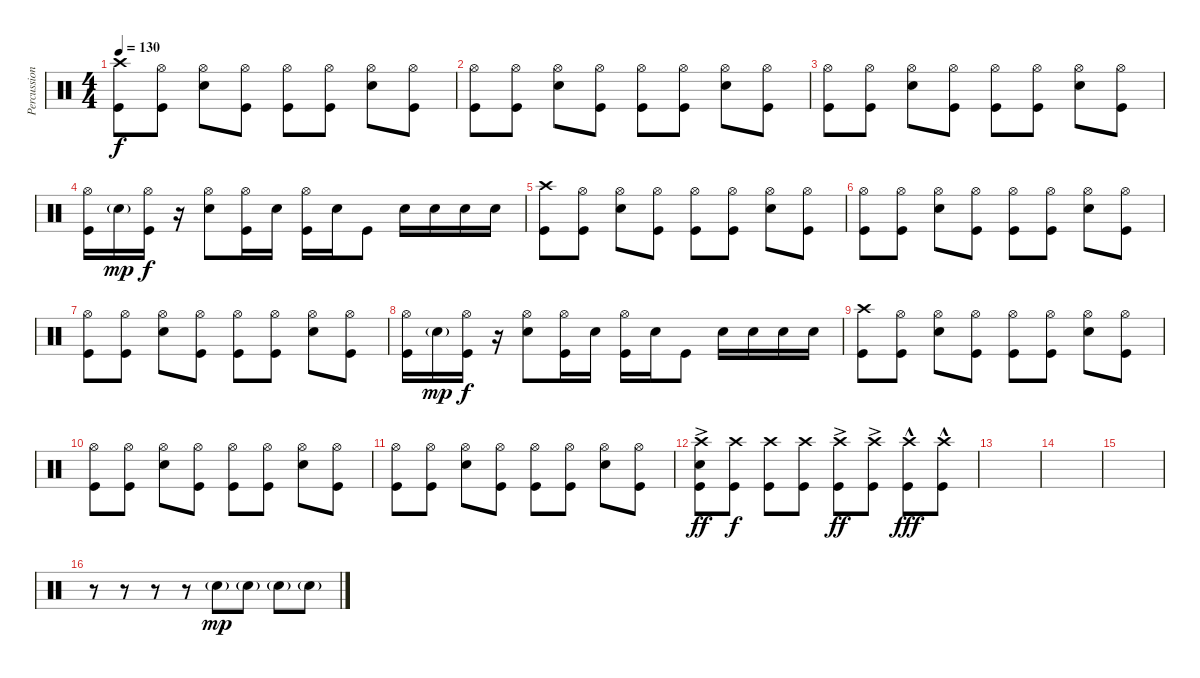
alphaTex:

\track ("Percussion" "Percussion") {instrument percussion}
\staff {score}
\articulation defaults
\ts (4 4)
\tempo 130
\clef neutral
\ks c
("Crash high (hit)" "Kick (hit)").8{dy f} ("Hi-Hat (open)" "Kick (hit)").8 ("Hi-Hat (open)" "Electric Snare (hit)").8 ("Hi-Hat (open)" "Kick (hit)").8 ("Hi-Hat (open)" "Kick (hit)").8 ("Hi-Hat (open)" "Kick (hit)").8 ("Hi-Hat (open)" "Electric Snare (hit)").8 ("Hi-Hat (open)" "Kick (hit)").8 |
("Hi-Hat (open)" "Kick (hit)").8 ("Hi-Hat (open)" "Kick (hit)").8 ("Hi-Hat (open)" "Electric Snare (hit)").8 ("Hi-Hat (open)" "Kick (hit)").8 ("Hi-Hat (open)" "Kick (hit)").8 ("Hi-Hat (open)" "Kick (hit)").8 ("Hi-Hat (open)" "Electric Snare (hit)").8 ("Hi-Hat (open)" "Kick (hit)").8 |
("Hi-Hat (open)" "Kick (hit)").8 ("Hi-Hat (open)" "Kick (hit)").8 ("Hi-Hat (open)" "Electric Snare (hit)").8 ("Hi-Hat (open)" "Kick (hit)").8 ("Hi-Hat (open)" "Kick (hit)").8 ("Hi-Hat (open)" "Kick (hit)").8 ("Hi-Hat (open)" "Electric Snare (hit)").8 ("Hi-Hat (open)" "Kick (hit)").8 |
("Hi-Hat (open)" "Kick (hit)").16 "Electric Snare (hit)"{g}.16{dy mp} ("Hi-Hat (open)" "Kick (hit)").16{dy f} r.16 ("Hi-Hat (open)" "Electric Snare (hit)").8 ("Hi-Hat (open)" "Kick (hit)").16 "Electric Snare (hit)".16 ("Hi-Hat (open)" "Kick (hit)").16 "Electric Snare (hit)".16 "Kick (hit)".8 "Electric Snare (hit)".16 "Electric Snare (hit)".16 "Electric Snare (hit)".16 "Electric Snare (hit)".16 |
("Crash high (hit)" "Kick (hit)").8 ("Hi-Hat (open)" "Kick (hit)").8 ("Hi-Hat (open)" "Electric Snare (hit)").8 ("Hi-Hat (open)" "Kick (hit)").8 ("Hi-Hat (open)" "Kick (hit)").8 ("Hi-Hat (open)" "Kick (hit)").8 ("Hi-Hat (open)" "Electric Snare (hit)").8 ("Hi-Hat (open)" "Kick (hit)").8 |
("Hi-Hat (open)" "Kick (hit)").8 ("Hi-Hat (open)" "Kick (hit)").8 ("Hi-Hat (open)" "Electric Snare (hit)").8 ("Hi-Hat (open)" "Kick (hit)").8 ("Hi-Hat (open)" "Kick (hit)").8 ("Hi-Hat (open)" "Kick (hit)").8 ("Hi-Hat (open)" "Electric Snare (hit)").8 ("Hi-Hat (open)" "Kick (hit)").8 |
("Hi-Hat (open)" "Kick (hit)").8 ("Hi-Hat (open)" "Kick (hit)").8 ("Hi-Hat (open)" "Electric Snare (hit)").8 ("Hi-Hat (open)" "Kick (hit)").8 ("Hi-Hat (open)" "Kick (hit)").8 ("Hi-Hat (open)" "Kick (hit)").8 ("Hi-Hat (open)" "Electric Snare (hit)").8 ("Hi-Hat (open)" "Kick (hit)").8 |
("Hi-Hat (open)" "Kick (hit)").16 "Electric Snare (hit)"{g}.16{dy mp} ("Hi-Hat (open)" "Kick (hit)").16{dy f} r.16 ("Hi-Hat (open)" "Electric Snare (hit)").8 ("Hi-Hat (open)" "Kick (hit)").16 "Electric Snare (hit)".16 ("Hi-Hat (open)" "Kick (hit)").16 "Electric Snare (hit)".16 "Kick (hit)".8 "Electric Snare (hit)".16 "Electric Snare (hit)".16 "Electric Snare (hit)".16 "Electric Snare (hit)".16 |
("Crash high (hit)" "Kick (hit)").8 ("Hi-Hat (open)" "Kick (hit)").8 ("Hi-Hat (open)" "Electric Snare (hit)").8 ("Hi-Hat (open)" "Kick (hit)").8 ("Hi-Hat (open)" "Kick (hit)").8 ("Hi-Hat (open)" "Kick (hit)").8 ("Hi-Hat (open)" "Electric Snare (hit)").8 ("Hi-Hat (open)" "Kick (hit)").8 |
("Hi-Hat (open)" "Kick (hit)").8 ("Hi-Hat (open)" "Kick (hit)").8 ("Hi-Hat (open)" "Electric Snare (hit)").8 ("Hi-Hat (open)" "Kick (hit)").8 ("Hi-Hat (open)" "Kick (hit)").8 ("Hi-Hat (open)" "Kick (hit)").8 ("Hi-Hat (open)" "Electric Snare (hit)").8 ("Hi-Hat (open)" "Kick (hit)").8 |
("Hi-Hat (open)" "Kick (hit)").8 ("Hi-Hat (open)" "Kick (hit)").8 ("Hi-Hat (open)" "Electric Snare (hit)").8 ("Hi-Hat (open)" "Kick (hit)").8 ("Hi-Hat (open)" "Kick (hit)").8 ("Hi-Hat (open)" "Kick (hit)").8 ("Hi-Hat (open)" "Electric Snare (hit)").8 ("Hi-Hat (open)" "Kick (hit)").8 |
("Crash high (hit)" "Electric Snare (hit)"{ac} "Kick (hit)").8{dy ff} ("Crash high (hit)" "Kick (hit)").8{dy f} ("Crash high (hit)" "Kick (hit)").8 ("Crash high (hit)" "Kick (hit)").8 ("Crash high (hit)"{ac} "Kick (hit)").8{dy ff} ("Crash high (hit)"{ac} "Kick (hit)").8 ("Crash high (hit)"{hac} "Kick (hit)").8{dy fff} ("Crash high (hit)"{hac} "Kick (hit)").8 |
|
|
|
r.8 r.8 r.8 r.8 "Electric Snare (hit)"{g}.8{dy mp volume 10} "Electric Snare (hit)"{g}.8 "Electric Snare (hit)"{g}.8 "Electric Snare (hit)"{g}.8
